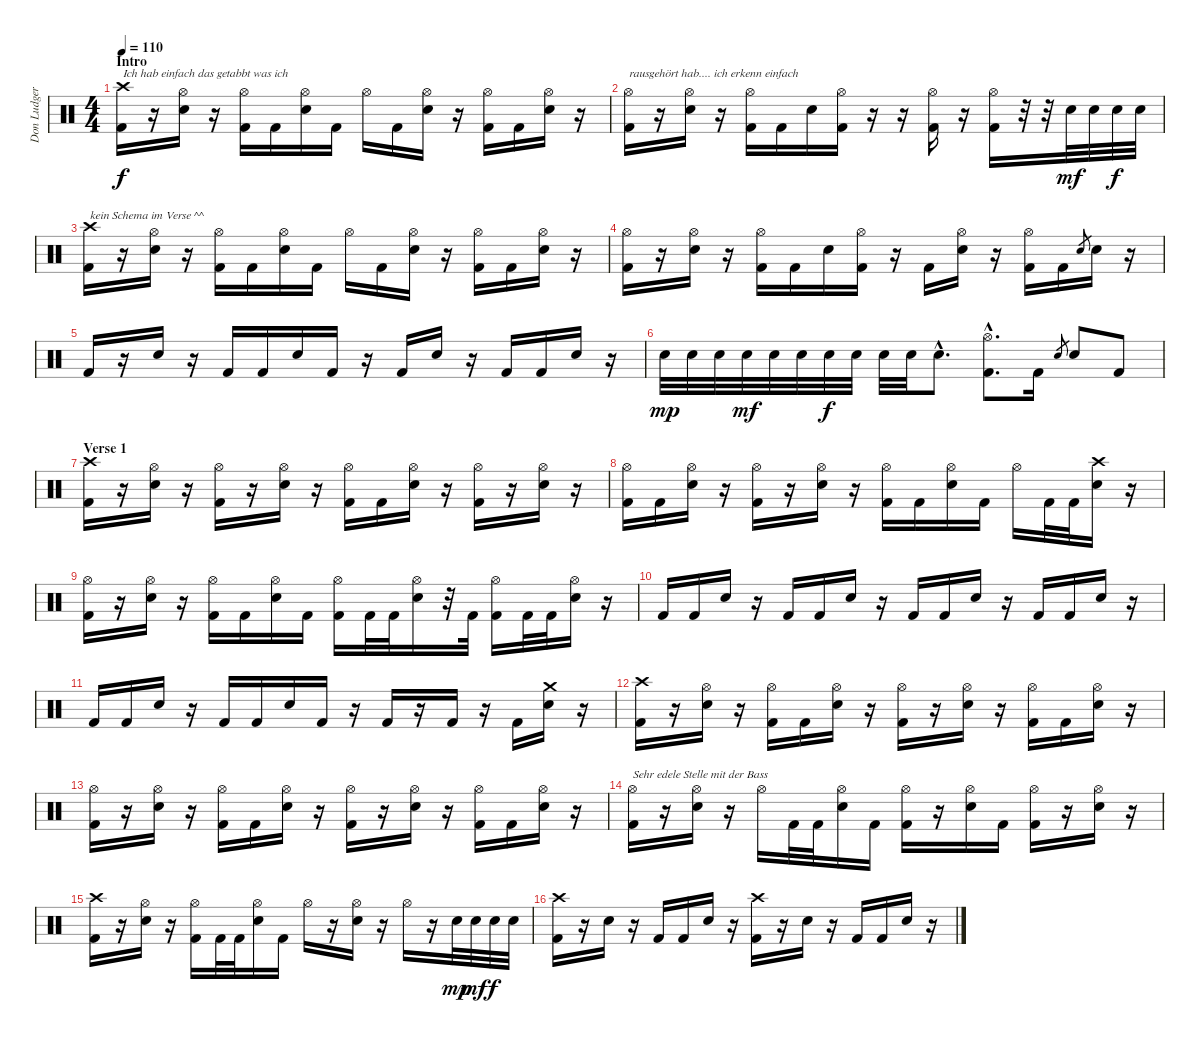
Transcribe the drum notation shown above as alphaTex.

\track ("Don Ludger" "Don Ludger") {instrument percussion}
\staff {score}
\articulation defaults
\ts (4 4)
\section ("" "Intro")
\tempo 110
\clef neutral
\ks c
("Crash high (hit)" "Kick (hit) 2").16{txt "Ich hab einfach das getabbt was ich " dy f} r.16 ("Hi-Hat (open)" "Electric Snare (hit)").16 r.16 ("Hi-Hat (open)" "Kick (hit) 2").16 "Kick (hit) 2".16 ("Hi-Hat (open)" "Electric Snare (hit)").16 "Kick (hit) 2".16 "Hi-Hat (open)".16 "Kick (hit) 2".16 ("Hi-Hat (open)" "Electric Snare (hit)").16 r.16 ("Hi-Hat (open)" "Kick (hit) 2").16 "Kick (hit) 2".16 ("Hi-Hat (open)" "Electric Snare (hit)").16 r.16 |
("Hi-Hat (open)" "Kick (hit) 2").16{txt "rausgehört hab.... ich erkenn einfach"} r.16 ("Hi-Hat (open)" "Electric Snare (hit)").16 r.16 ("Hi-Hat (open)" "Kick (hit) 2").16 "Kick (hit) 2".16 "Electric Snare (hit)".16 ("Hi-Hat (open)" "Kick (hit) 2").16 r.16 r.16 ("Hi-Hat (open)" "Kick (hit) 2").16 r.16 ("Hi-Hat (open)" "Kick (hit) 2").16 r.32 r.32 "Electric Snare (hit)".32{dy mf} "Electric Snare (hit)".32 "Electric Snare (hit)".32{dy f} "Electric Snare (hit)".32 |
("Crash high (hit)" "Kick (hit) 2").16{txt "kein Schema im Verse ^^"} r.16 ("Hi-Hat (open)" "Electric Snare (hit)").16 r.16 ("Hi-Hat (open)" "Kick (hit) 2").16 "Kick (hit) 2".16 ("Hi-Hat (open)" "Electric Snare (hit)").16 "Kick (hit) 2".16 "Hi-Hat (open)".16 "Kick (hit) 2".16 ("Hi-Hat (open)" "Electric Snare (hit)").16 r.16 ("Hi-Hat (open)" "Kick (hit) 2").16 "Kick (hit) 2".16 ("Hi-Hat (open)" "Electric Snare (hit)").16 r.16 |
("Hi-Hat (open)" "Kick (hit) 2").16 r.16 ("Hi-Hat (open)" "Electric Snare (hit)").16 r.16 ("Hi-Hat (open)" "Kick (hit) 2").16 "Kick (hit) 2".16 "Electric Snare (hit)".16 ("Hi-Hat (open)" "Kick (hit) 2").16 r.16 "Kick (hit) 2".16 ("Hi-Hat (open)" "Electric Snare (hit)").16 r.16 ("Hi-Hat (open)" "Kick (hit) 2").16 "Kick (hit) 2".16 "Electric Snare (hit)".8{gr} "Electric Snare (hit)".16 r.16 |
"Kick (hit) 2".16 r.16 "Electric Snare (hit)".16 r.16 "Kick (hit) 2".16 "Kick (hit) 2".16 "Electric Snare (hit)".16 "Kick (hit) 2".16 r.16 "Kick (hit) 2".16 "Electric Snare (hit)".16 r.16 "Kick (hit) 2".16 "Kick (hit) 2".16 "Electric Snare (hit)".16 r.16 |
"Electric Snare (hit)".32{dy mp} "Electric Snare (hit)".32 "Electric Snare (hit)".32 "Electric Snare (hit)".32{dy mf} "Electric Snare (hit)".32 "Electric Snare (hit)".32 "Electric Snare (hit)".32{dy f} "Electric Snare (hit)".32 "Electric Snare (hit)".32 "Electric Snare (hit)".32 "Electric Snare (hit)"{hac}.8{d} ("Hi-Hat (open)"{hac} "Kick (hit) 2"{hac}).8{d} "Kick (hit) 2".16 "Electric Snare (hit)".8{gr} "Electric Snare (hit)".8 "Kick (hit) 2".8 |
\section ("" "Verse 1")
("Crash high (hit)" "Kick (hit) 2").16 r.16 ("Hi-Hat (open)" "Electric Snare (hit)").16 r.16 ("Hi-Hat (open)" "Kick (hit) 2").16 r.16 ("Hi-Hat (open)" "Electric Snare (hit)").16 r.16 ("Hi-Hat (open)" "Kick (hit) 2").16 "Kick (hit) 2".16 ("Hi-Hat (open)" "Electric Snare (hit)").16 r.16 ("Hi-Hat (open)" "Kick (hit) 2").16 r.16 ("Hi-Hat (open)" "Electric Snare (hit)").16 r.16 |
("Hi-Hat (open)" "Kick (hit) 2").16 "Kick (hit) 2".16 ("Hi-Hat (open)" "Electric Snare (hit)").16 r.16 ("Hi-Hat (open)" "Kick (hit) 2").16 r.16 ("Hi-Hat (open)" "Electric Snare (hit)").16 r.16 ("Hi-Hat (open)" "Kick (hit) 2").16 "Kick (hit) 2".16 ("Hi-Hat (open)" "Electric Snare (hit)").16 "Kick (hit) 2".16 "Hi-Hat (open)".16 "Kick (hit) 2".32 "Kick (hit) 2".32 ("Crash high (hit)" "Electric Snare (hit)").16 r.16 |
("Hi-Hat (open)" "Kick (hit) 2").16 r.16 ("Hi-Hat (open)" "Electric Snare (hit)").16 r.16 ("Hi-Hat (open)" "Kick (hit) 2").16 "Kick (hit) 2".16 ("Hi-Hat (open)" "Electric Snare (hit)").16 "Kick (hit) 2".16 ("Hi-Hat (open)" "Kick (hit) 2").16 "Kick (hit) 2".32 "Kick (hit) 2".32 ("Hi-Hat (open)" "Electric Snare (hit)").16 r.32 "Kick (hit) 2".32 ("Hi-Hat (open)" "Kick (hit) 2").16 "Kick (hit) 2".32 "Kick (hit) 2".32 ("Hi-Hat (open)" "Electric Snare (hit)").16 r.16 |
"Kick (hit) 2".16 "Kick (hit) 2".16 "Electric Snare (hit)".16 r.16 "Kick (hit) 2".16 "Kick (hit) 2".16 "Electric Snare (hit)".16 r.16 "Kick (hit) 2".16 "Kick (hit) 2".16 "Electric Snare (hit)".16 r.16 "Kick (hit) 2".16 "Kick (hit) 2".16 "Electric Snare (hit)".16 r.16 |
"Kick (hit) 2".16 "Kick (hit) 2".16 "Electric Snare (hit)".16 r.16 "Kick (hit) 2".16 "Kick (hit) 2".16 "Electric Snare (hit)".16 "Kick (hit) 2".16 r.16 "Kick (hit) 2".16 r.16 "Kick (hit) 2".16 r.16 "Kick (hit) 2".16 ("Crash medium (hit)" "Electric Snare (hit)").16 r.16 |
("Crash high (hit)" "Kick (hit) 2").16 r.16 ("Hi-Hat (open)" "Electric Snare (hit)").16 r.16 ("Hi-Hat (open)" "Kick (hit) 2").16 "Kick (hit) 2".16 ("Hi-Hat (open)" "Electric Snare (hit)").16 r.16 ("Hi-Hat (open)" "Kick (hit) 2").16 r.16 ("Hi-Hat (open)" "Electric Snare (hit)").16 r.16 ("Hi-Hat (open)" "Kick (hit) 2").16 "Kick (hit) 2".16 ("Hi-Hat (open)" "Electric Snare (hit)").16 r.16 |
("Hi-Hat (open)" "Kick (hit) 2").16 r.16 ("Hi-Hat (open)" "Electric Snare (hit)").16 r.16 ("Hi-Hat (open)" "Kick (hit) 2").16 "Kick (hit) 2".16 ("Hi-Hat (open)" "Electric Snare (hit)").16 r.16 ("Hi-Hat (open)" "Kick (hit) 2").16 r.16 ("Hi-Hat (open)" "Electric Snare (hit)").16 r.16 ("Hi-Hat (open)" "Kick (hit) 2").16 "Kick (hit) 2".16 ("Hi-Hat (open)" "Electric Snare (hit)").16 r.16 |
("Hi-Hat (open)" "Kick (hit) 2").16{txt "Sehr edele Stelle mit der Bass"} r.16 ("Hi-Hat (open)" "Electric Snare (hit)").16 r.16 "Hi-Hat (open)".16 "Kick (hit) 2".32 "Kick (hit) 2".32 ("Hi-Hat (open)" "Electric Snare (hit)").16 "Kick (hit) 2".16 ("Hi-Hat (open)" "Kick (hit) 2").16 r.16 ("Hi-Hat (open)" "Electric Snare (hit)").16 "Kick (hit) 2".16 ("Hi-Hat (open)" "Kick (hit) 2").16 r.16 ("Hi-Hat (open)" "Electric Snare (hit)").16 r.16 |
("Crash high (hit)" "Kick (hit) 2").16 r.16 ("Hi-Hat (open)" "Electric Snare (hit)").16 r.16 ("Hi-Hat (open)" "Kick (hit) 2").16 "Kick (hit) 2".32 "Kick (hit) 2".32 ("Hi-Hat (open)" "Electric Snare (hit)").16 "Kick (hit) 2".16 "Hi-Hat (open)".16 r.16 ("Hi-Hat (open)" "Electric Snare (hit)").16 r.16 "Hi-Hat (open)".16 r.16 "Electric Snare (hit)".32{dy mp} "Electric Snare (hit)".32{dy mf} "Electric Snare (hit)".32{dy f} "Electric Snare (hit)".32 |
("Crash high (hit)" "Kick (hit) 2").16 r.16 "Electric Snare (hit)".16 r.16 "Kick (hit) 2".16 "Kick (hit) 2".16 "Electric Snare (hit)".16 r.16 ("Crash high (hit)" "Kick (hit) 2").16 r.16 "Electric Snare (hit)".16 r.16 "Kick (hit) 2".16 "Kick (hit) 2".16 "Electric Snare (hit)".16 r.16
